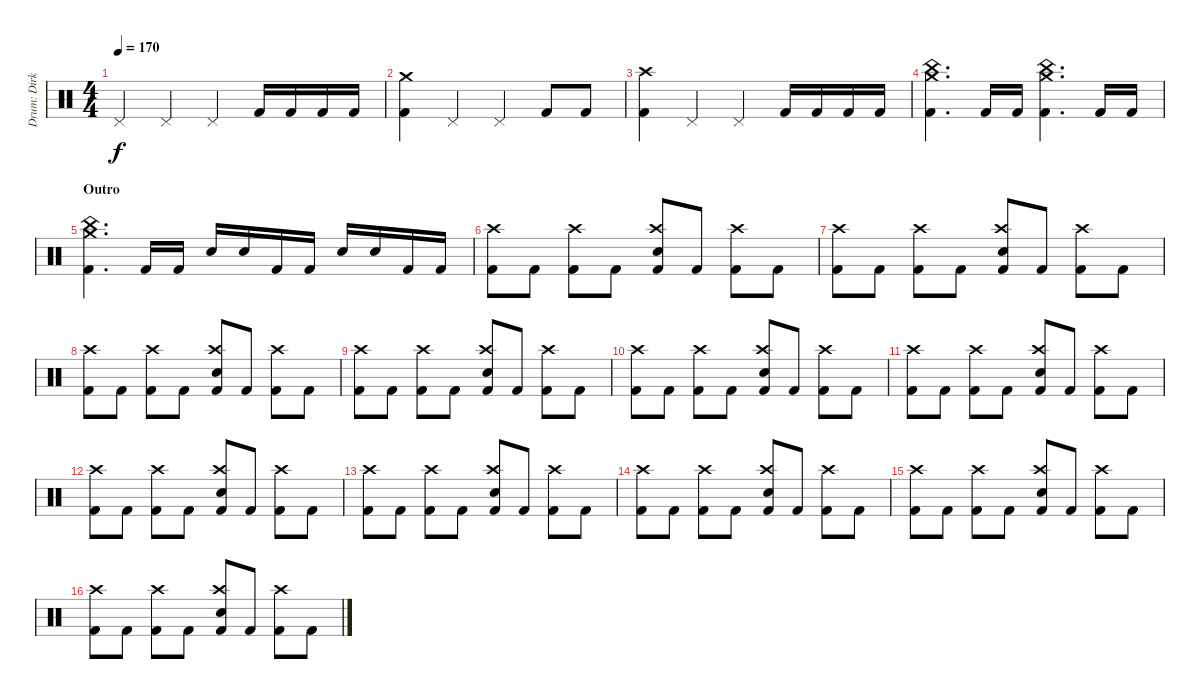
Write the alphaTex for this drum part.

\track ("Drum: Dirk" "Drum: Dirk") {instrument percussion}
\staff {score}
\articulation defaults
\ts (4 4)
\tempo 170
\clef neutral
\ks c "Pedal Hi-Hat (hit)".4{dy f} "Pedal Hi-Hat (hit)".4 "Pedal Hi-Hat (hit)".4 "Kick (hit) 2".16 "Kick (hit) 2".16 "Kick (hit) 2".16 "Kick (hit) 2".16
|
("Crash medium (hit)" "Kick (hit) 2").4 "Pedal Hi-Hat (hit)".4 "Pedal Hi-Hat (hit)".4 "Kick (hit) 2".8 "Kick (hit) 2".8 |
("Crash high (hit)" "Kick (hit) 2").4 "Pedal Hi-Hat (hit)".4 "Pedal Hi-Hat (hit)".4 "Kick (hit) 2".16 "Kick (hit) 2".16 "Kick (hit) 2".16 "Kick (hit) 2".16 |
("China (hit)" "Crash medium (hit)" "Kick (hit) 2").4{d} "Kick (hit) 2".16 "Kick (hit) 2".16 ("China (hit)" "Crash medium (hit)" "Kick (hit) 2").4{d} "Kick (hit) 2".16 "Kick (hit) 2".16 |
\section ("" "Outro")
("China (hit)" "Crash medium (hit)" "Kick (hit) 2").4{d} "Kick (hit) 2".16 "Kick (hit) 2".16 "Electric Snare (hit)".16 "Electric Snare (hit)".16 "Kick (hit) 2".16 "Kick (hit) 2".16 "Electric Snare (hit)".16 "Electric Snare (hit)".16 "Kick (hit) 2".16 "Kick (hit) 2".16 |
("Crash high (hit)" "Kick (hit) 2").8 "Kick (hit) 2".8 ("Crash high (hit)" "Kick (hit) 2").8 "Kick (hit) 2".8 ("Crash high (hit)" "Electric Snare (hit)" "Kick (hit) 2").8 "Kick (hit) 2".8 ("Crash high (hit)" "Kick (hit) 2").8 "Kick (hit) 2".8 |
("Crash high (hit)" "Kick (hit) 2").8 "Kick (hit) 2".8 ("Crash high (hit)" "Kick (hit) 2").8 "Kick (hit) 2".8 ("Crash high (hit)" "Electric Snare (hit)" "Kick (hit) 2").8 "Kick (hit) 2".8 ("Crash high (hit)" "Kick (hit) 2").8 "Kick (hit) 2".8 |
("Crash high (hit)" "Kick (hit) 2").8 "Kick (hit) 2".8 ("Crash high (hit)" "Kick (hit) 2").8 "Kick (hit) 2".8 ("Crash high (hit)" "Electric Snare (hit)" "Kick (hit) 2").8 "Kick (hit) 2".8 ("Crash high (hit)" "Kick (hit) 2").8 "Kick (hit) 2".8 |
("Crash high (hit)" "Kick (hit) 2").8 "Kick (hit) 2".8 ("Crash high (hit)" "Kick (hit) 2").8 "Kick (hit) 2".8 ("Crash high (hit)" "Electric Snare (hit)" "Kick (hit) 2").8 "Kick (hit) 2".8 ("Crash high (hit)" "Kick (hit) 2").8 "Kick (hit) 2".8 |
("Crash high (hit)" "Kick (hit) 2").8 "Kick (hit) 2".8 ("Crash high (hit)" "Kick (hit) 2").8 "Kick (hit) 2".8 ("Crash high (hit)" "Electric Snare (hit)" "Kick (hit) 2").8 "Kick (hit) 2".8 ("Crash high (hit)" "Kick (hit) 2").8 "Kick (hit) 2".8 |
("Crash high (hit)" "Kick (hit) 2").8 "Kick (hit) 2".8 ("Crash high (hit)" "Kick (hit) 2").8 "Kick (hit) 2".8 ("Crash high (hit)" "Electric Snare (hit)" "Kick (hit) 2").8 "Kick (hit) 2".8 ("Crash high (hit)" "Kick (hit) 2").8 "Kick (hit) 2".8 |
("Crash high (hit)" "Kick (hit) 2").8 "Kick (hit) 2".8 ("Crash high (hit)" "Kick (hit) 2").8 "Kick (hit) 2".8 ("Crash high (hit)" "Electric Snare (hit)" "Kick (hit) 2").8 "Kick (hit) 2".8 ("Crash high (hit)" "Kick (hit) 2").8 "Kick (hit) 2".8 |
("Crash high (hit)" "Kick (hit) 2").8 "Kick (hit) 2".8 ("Crash high (hit)" "Kick (hit) 2").8 "Kick (hit) 2".8 ("Crash high (hit)" "Electric Snare (hit)" "Kick (hit) 2").8 "Kick (hit) 2".8 ("Crash high (hit)" "Kick (hit) 2").8 "Kick (hit) 2".8 |
("Crash high (hit)" "Kick (hit) 2").8 "Kick (hit) 2".8 ("Crash high (hit)" "Kick (hit) 2").8 "Kick (hit) 2".8 ("Crash high (hit)" "Electric Snare (hit)" "Kick (hit) 2").8 "Kick (hit) 2".8 ("Crash high (hit)" "Kick (hit) 2").8 "Kick (hit) 2".8 |
("Crash high (hit)" "Kick (hit) 2").8 "Kick (hit) 2".8 ("Crash high (hit)" "Kick (hit) 2").8 "Kick (hit) 2".8 ("Crash high (hit)" "Electric Snare (hit)" "Kick (hit) 2").8 "Kick (hit) 2".8 ("Crash high (hit)" "Kick (hit) 2").8 "Kick (hit) 2".8 |
("Crash high (hit)" "Kick (hit) 2").8 "Kick (hit) 2".8 ("Crash high (hit)" "Kick (hit) 2").8 "Kick (hit) 2".8 ("Crash high (hit)" "Electric Snare (hit)" "Kick (hit) 2").8 "Kick (hit) 2".8 ("Crash high (hit)" "Kick (hit) 2").8 "Kick (hit) 2".8
